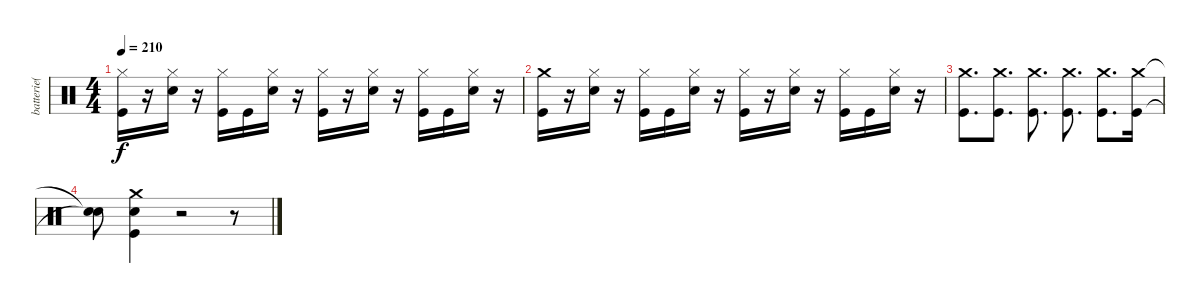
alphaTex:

\track ("batterie( Jimmy ) " "batterie( ") {instrument percussion}
\staff {score}
\articulation defaults
\ts (4 4)
\tempo 210
\clef neutral
\ks c
("Hi-Hat (closed)" "Kick (hit)").16{dy f} r.16 ("Hi-Hat (closed)" "Snare (hit) 2").16 r.16 ("Hi-Hat (closed)" "Kick (hit)").16 "Kick (hit)".16 ("Hi-Hat (closed)" "Snare (hit) 2").16 r.16 ("Hi-Hat (closed)" "Kick (hit)").16 r.16 ("Hi-Hat (closed)" "Snare (hit) 2").16 r.16 ("Hi-Hat (closed)" "Kick (hit)").16 "Kick (hit)".16 ("Hi-Hat (closed)" "Snare (hit) 2").16 r.16 |
("Crash medium (hit)" "Kick (hit)").16 r.16 ("Hi-Hat (closed)" "Snare (hit) 2").16 r.16 ("Hi-Hat (closed)" "Kick (hit)").16 "Kick (hit)".16 ("Hi-Hat (closed)" "Snare (hit) 2").16 r.16 ("Hi-Hat (closed)" "Kick (hit)").16 r.16 ("Hi-Hat (closed)" "Snare (hit) 2").16 r.16 ("Hi-Hat (closed)" "Kick (hit)").16 "Kick (hit)".16 ("Hi-Hat (closed)" "Snare (hit) 2").16 r.16 |
("Crash medium (hit)" "Kick (hit)").8{d} ("Crash medium (hit)" "Kick (hit)").8{d} ("Crash medium (hit)" "Kick (hit)").8{d} ("Crash medium (hit)" "Kick (hit)").8{d} ("Crash medium (hit)" "Kick (hit)").8{d} ("Crash medium (hit)" "Kick (hit)").16 |
("Snare (hit)"{t} "Snare (hit)"{t}).8 ("Crash medium (hit)" "Snare (hit) 2" "Kick (hit)").4 r.2 r.8
